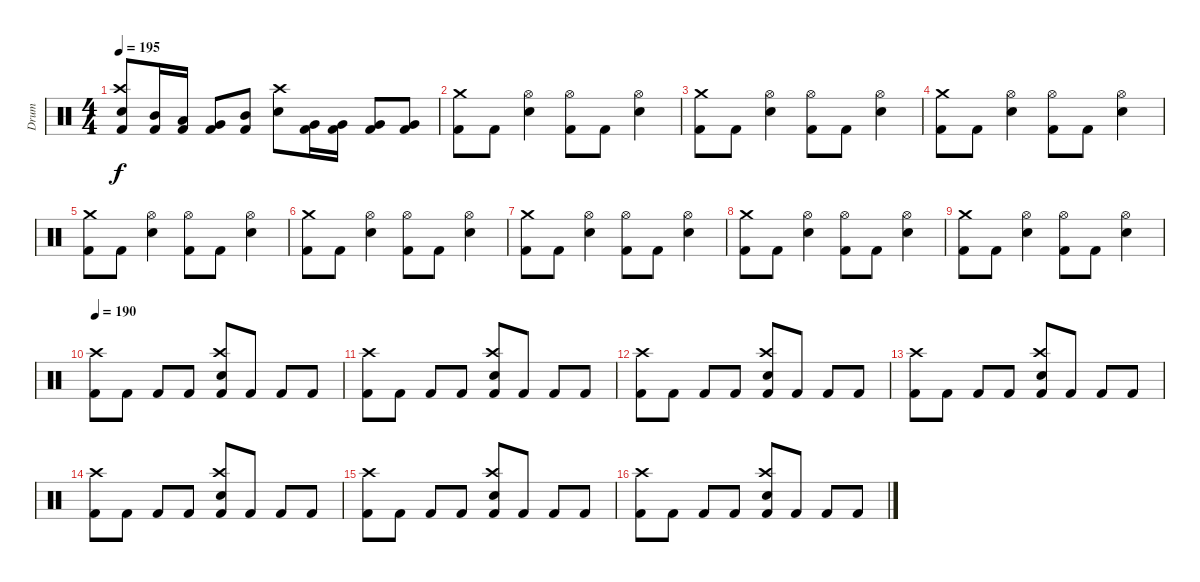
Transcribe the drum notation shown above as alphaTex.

\track ("Drum" "Drum") {instrument percussion}
\staff {score}
\articulation defaults
\ts (4 4)
\tempo 195
\clef neutral
\ks c
("Electric Snare (hit)" "Crash high (hit)" "Kick (hit) 2").8{dy f} ("Mid Tom (hit)" "Kick (hit) 2").16 ("Low Tom (hit)" "Kick (hit) 2").16 ("Very Low Tom (hit)" "Kick (hit) 2").8 ("Mid Tom (hit)" "Kick (hit) 2").8 ("Electric Snare (hit)" "Crash high (hit)").8 ("Very Low Tom (hit)" "Kick (hit) 2").16 ("Very Low Tom (hit)" "Kick (hit) 2").16 ("Very Low Tom (hit)" "Kick (hit) 2").8 ("Very Low Tom (hit)" "Kick (hit) 2").8 |
("Kick (hit) 2" "Crash medium (hit)").8 "Kick (hit) 2".8 ("Electric Snare (hit)" "Hi-Hat (open)").4 ("Kick (hit) 2" "Hi-Hat (open)").8 "Kick (hit) 2".8 ("Electric Snare (hit)" "Hi-Hat (open)").4 |
("Kick (hit) 2" "Crash medium (hit)").8 "Kick (hit) 2".8 ("Electric Snare (hit)" "Hi-Hat (open)").4 ("Kick (hit) 2" "Hi-Hat (open)").8 "Kick (hit) 2".8 ("Electric Snare (hit)" "Hi-Hat (open)").4 |
("Kick (hit) 2" "Crash medium (hit)").8 "Kick (hit) 2".8 ("Electric Snare (hit)" "Hi-Hat (open)").4 ("Kick (hit) 2" "Hi-Hat (open)").8 "Kick (hit) 2".8 ("Electric Snare (hit)" "Hi-Hat (open)").4 |
("Kick (hit) 2" "Crash medium (hit)").8 "Kick (hit) 2".8 ("Electric Snare (hit)" "Hi-Hat (open)").4 ("Kick (hit) 2" "Hi-Hat (open)").8 "Kick (hit) 2".8 ("Electric Snare (hit)" "Hi-Hat (open)").4 |
("Kick (hit) 2" "Crash medium (hit)").8 "Kick (hit) 2".8 ("Electric Snare (hit)" "Hi-Hat (open)").4 ("Kick (hit) 2" "Hi-Hat (open)").8 "Kick (hit) 2".8 ("Electric Snare (hit)" "Hi-Hat (open)").4 |
("Kick (hit) 2" "Crash medium (hit)").8 "Kick (hit) 2".8 ("Electric Snare (hit)" "Hi-Hat (open)").4 ("Kick (hit) 2" "Hi-Hat (open)").8 "Kick (hit) 2".8 ("Electric Snare (hit)" "Hi-Hat (open)").4 |
("Kick (hit) 2" "Crash medium (hit)").8 "Kick (hit) 2".8 ("Electric Snare (hit)" "Hi-Hat (open)").4 ("Kick (hit) 2" "Hi-Hat (open)").8 "Kick (hit) 2".8 ("Electric Snare (hit)" "Hi-Hat (open)").4 |
("Kick (hit) 2" "Crash medium (hit)").8 "Kick (hit) 2".8 ("Electric Snare (hit)" "Hi-Hat (open)").4 ("Kick (hit) 2" "Hi-Hat (open)").8 "Kick (hit) 2".8 ("Electric Snare (hit)" "Hi-Hat (open)").4 |
\tempo 190
("Kick (hit) 2" "Crash high (hit)").8 "Kick (hit) 2".8 "Kick (hit) 2".8 "Kick (hit) 2".8 ("Kick (hit) 2" "Electric Snare (hit)" "Crash high (hit)").8 "Kick (hit) 2".8 "Kick (hit) 2".8 "Kick (hit) 2".8 |
("Kick (hit) 2" "Crash high (hit)").8 "Kick (hit) 2".8 "Kick (hit) 2".8 "Kick (hit) 2".8 ("Kick (hit) 2" "Electric Snare (hit)" "Crash high (hit)").8 "Kick (hit) 2".8 "Kick (hit) 2".8 "Kick (hit) 2".8 |
("Kick (hit) 2" "Crash high (hit)").8 "Kick (hit) 2".8 "Kick (hit) 2".8 "Kick (hit) 2".8 ("Kick (hit) 2" "Electric Snare (hit)" "Crash high (hit)").8 "Kick (hit) 2".8 "Kick (hit) 2".8 "Kick (hit) 2".8 |
("Kick (hit) 2" "Crash high (hit)").8 "Kick (hit) 2".8 "Kick (hit) 2".8 "Kick (hit) 2".8 ("Kick (hit) 2" "Electric Snare (hit)" "Crash high (hit)").8 "Kick (hit) 2".8 "Kick (hit) 2".8 "Kick (hit) 2".8 |
("Kick (hit) 2" "Crash high (hit)").8 "Kick (hit) 2".8 "Kick (hit) 2".8 "Kick (hit) 2".8 ("Kick (hit) 2" "Electric Snare (hit)" "Crash high (hit)").8 "Kick (hit) 2".8 "Kick (hit) 2".8 "Kick (hit) 2".8 |
("Kick (hit) 2" "Crash high (hit)").8 "Kick (hit) 2".8 "Kick (hit) 2".8 "Kick (hit) 2".8 ("Kick (hit) 2" "Electric Snare (hit)" "Crash high (hit)").8 "Kick (hit) 2".8 "Kick (hit) 2".8 "Kick (hit) 2".8 |
("Kick (hit) 2" "Crash high (hit)").8 "Kick (hit) 2".8 "Kick (hit) 2".8 "Kick (hit) 2".8 ("Kick (hit) 2" "Electric Snare (hit)" "Crash high (hit)").8 "Kick (hit) 2".8 "Kick (hit) 2".8 "Kick (hit) 2".8
